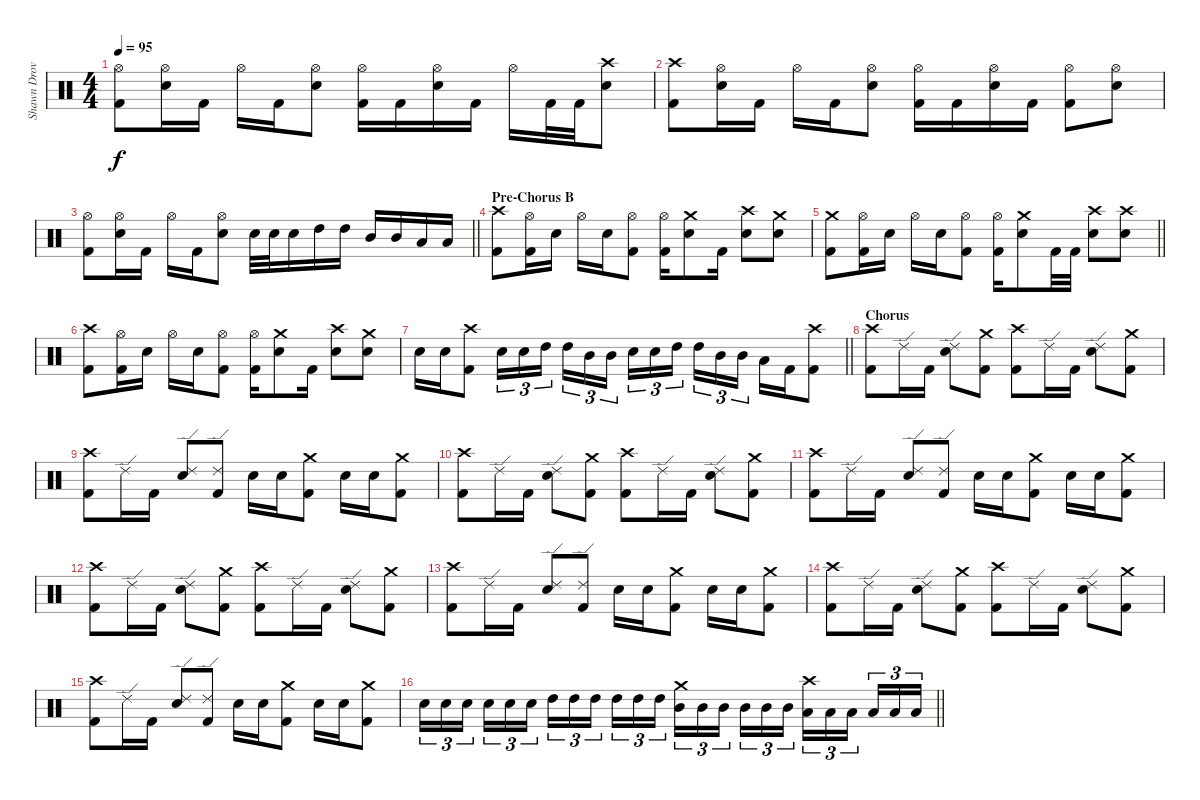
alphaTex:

\track ("Shawn Drover" "Shawn Drov") {instrument percussion}
\staff {score}
\articulation defaults
\ts (4 4)
\tempo 95
\clef neutral
\ks c
("Hi-Hat (open)" "Kick (hit) 2").8{dy f} ("Hi-Hat (open)" "Electric Snare (hit)").16 "Kick (hit) 2".16 "Hi-Hat (open)".16 "Kick (hit) 2".16 ("Hi-Hat (open)" "Electric Snare (hit)").8 ("Hi-Hat (open)" "Kick (hit) 2").16 "Kick (hit) 2".16 ("Hi-Hat (open)" "Electric Snare (hit)").16 "Kick (hit) 2".16 "Hi-Hat (open)".16 "Kick (hit) 2".32 "Kick (hit) 2".32 ("Crash high (hit)" "Electric Snare (hit)").8 |
("Crash high (hit)" "Kick (hit) 2").8 ("Hi-Hat (open)" "Electric Snare (hit)").16 "Kick (hit) 2".16 "Hi-Hat (open)".16 "Kick (hit) 2".16 ("Hi-Hat (open)" "Electric Snare (hit)").8 ("Hi-Hat (open)" "Kick (hit) 2").16 "Kick (hit) 2".16 ("Hi-Hat (open)" "Electric Snare (hit)").16 "Kick (hit) 2".16 ("Hi-Hat (open)" "Kick (hit) 2").8 ("Hi-Hat (open)" "Electric Snare (hit)").8 |
\barLineRight lightlight
("Hi-Hat (open)" "Kick (hit) 2").8 ("Hi-Hat (open)" "Electric Snare (hit)").16 "Kick (hit) 2".16 "Hi-Hat (open)".16 "Kick (hit) 2".16 ("Hi-Hat (open)" "Electric Snare (hit)").8 "Electric Snare (hit)".32 "Electric Snare (hit)".32 "Electric Snare (hit)".16 "High Tom (hit)".16 "High Tom (hit)".16 "Mid Tom (hit)".16 "Mid Tom (hit)".16 "Low Tom (hit)".16 "Low Tom (hit)".16 |
\section ("" "Pre-Chorus B")
("Crash high (hit)" "Kick (hit) 2").8 ("Hi-Hat (open)" "Kick (hit) 2").16 "Electric Snare (hit)".16 "Hi-Hat (open)".16 "Electric Snare (hit)".16 ("Hi-Hat (open)" "Kick (hit) 2").8 ("Hi-Hat (open)" "Kick (hit) 2").16 ("Crash medium (hit)" "Electric Snare (hit)").8 "Kick (hit) 2".16 ("Crash high (hit)" "Electric Snare (hit)").8 ("Crash medium (hit)" "Electric Snare (hit)").8 |
\barLineRight lightlight
("Crash medium (hit)" "Kick (hit) 2").8 ("Hi-Hat (open)" "Kick (hit) 2").16 "Electric Snare (hit)".16 "Hi-Hat (open)".16 "Electric Snare (hit)".16 ("Hi-Hat (open)" "Kick (hit) 2").8 ("Hi-Hat (open)" "Kick (hit) 2").16 ("Crash medium (hit)" "Electric Snare (hit)").8 "Kick (hit) 2".32 "Kick (hit) 2".32 ("Crash high (hit)" "Electric Snare (hit)").8 ("Crash high (hit)" "Electric Snare (hit)").8 |
("Crash high (hit)" "Kick (hit) 2").8 ("Hi-Hat (open)" "Kick (hit) 2").16 "Electric Snare (hit)".16 "Hi-Hat (open)".16 "Electric Snare (hit)".16 ("Hi-Hat (open)" "Kick (hit) 2").8 ("Hi-Hat (open)" "Kick (hit) 2").16 ("Crash medium (hit)" "Electric Snare (hit)").8 "Kick (hit) 2".16 ("Crash high (hit)" "Electric Snare (hit)").8 ("Crash medium (hit)" "Electric Snare (hit)").8 |
\barLineRight lightlight "Electric Snare (hit)".16 "Electric Snare (hit)".16
("Crash high (hit)" "Kick (hit) 2").8 "Electric Snare (hit)".16{tu (3 2)} "Electric Snare (hit)".16{tu (3 2)} "High Tom (hit)".16{tu (3 2) beam splitsecondary} "High Tom (hit)".16{tu (3 2)} "Mid Tom (hit)".16{tu (3 2)} "Mid Tom (hit)".16{tu (3 2)} "Electric Snare (hit)".16{tu (3 2)} "Electric Snare (hit)".16{tu (3 2)} "High Tom (hit)".16{tu (3 2) beam splitsecondary} "High Tom (hit)".16{tu (3 2)} "Mid Tom (hit)".16{tu (3 2)} "Mid Tom (hit)".16{tu (3 2)} "Low Tom (hit)".16 "Kick (hit) 2".16 ("Crash high (hit)" "Kick (hit) 2").8 |
\section ("" "Chorus")
("Crash high (hit)" "Kick (hit) 2").8 "Ride (edge) 2".16 "Kick (hit) 2".16 ("Ride (edge) 2" "Electric Snare (hit)").8 ("Crash medium (hit)" "Kick (hit) 2").8 ("Crash high (hit)" "Kick (hit) 2").8 "Ride (edge) 2".16 "Kick (hit) 2".16 ("Ride (edge) 2" "Electric Snare (hit)").8 ("Crash medium (hit)" "Kick (hit) 2").8 |
("Crash high (hit)" "Kick (hit) 2").8 "Ride (edge) 2".16 "Kick (hit) 2".16 ("Ride (edge) 2" "Electric Snare (hit)").8 ("Ride (edge) 2" "Kick (hit) 2").8 "Electric Snare (hit)".16 "Electric Snare (hit)".16 ("Crash medium (hit)" "Kick (hit) 2").8 "Electric Snare (hit)".16 "Electric Snare (hit)".16 ("Crash medium (hit)" "Kick (hit) 2").8 |
("Crash high (hit)" "Kick (hit) 2").8 "Ride (edge) 2".16 "Kick (hit) 2".16 ("Ride (edge) 2" "Electric Snare (hit)").8 ("Crash medium (hit)" "Kick (hit) 2").8 ("Crash high (hit)" "Kick (hit) 2").8 "Ride (edge) 2".16 "Kick (hit) 2".16 ("Ride (edge) 2" "Electric Snare (hit)").8 ("Crash medium (hit)" "Kick (hit) 2").8 |
("Crash high (hit)" "Kick (hit) 2").8 "Ride (edge) 2".16 "Kick (hit) 2".16 ("Ride (edge) 2" "Electric Snare (hit)").8 ("Ride (edge) 2" "Kick (hit) 2").8 "Electric Snare (hit)".16 "Electric Snare (hit)".16 ("Crash medium (hit)" "Kick (hit) 2").8 "Electric Snare (hit)".16 "Electric Snare (hit)".16 ("Crash medium (hit)" "Kick (hit) 2").8 |
("Crash high (hit)" "Kick (hit) 2").8 "Ride (edge) 2".16 "Kick (hit) 2".16 ("Ride (edge) 2" "Electric Snare (hit)").8 ("Crash medium (hit)" "Kick (hit) 2").8 ("Crash high (hit)" "Kick (hit) 2").8 "Ride (edge) 2".16 "Kick (hit) 2".16 ("Ride (edge) 2" "Electric Snare (hit)").8 ("Crash medium (hit)" "Kick (hit) 2").8 |
("Crash high (hit)" "Kick (hit) 2").8 "Ride (edge) 2".16 "Kick (hit) 2".16 ("Ride (edge) 2" "Electric Snare (hit)").8 ("Ride (edge) 2" "Kick (hit) 2").8 "Electric Snare (hit)".16 "Electric Snare (hit)".16 ("Crash medium (hit)" "Kick (hit) 2").8 "Electric Snare (hit)".16 "Electric Snare (hit)".16 ("Crash medium (hit)" "Kick (hit) 2").8 |
("Crash high (hit)" "Kick (hit) 2").8 "Ride (edge) 2".16 "Kick (hit) 2".16 ("Ride (edge) 2" "Electric Snare (hit)").8 ("Crash medium (hit)" "Kick (hit) 2").8 ("Crash high (hit)" "Kick (hit) 2").8 "Ride (edge) 2".16 "Kick (hit) 2".16 ("Ride (edge) 2" "Electric Snare (hit)").8 ("Crash medium (hit)" "Kick (hit) 2").8 |
("Crash high (hit)" "Kick (hit) 2").8 "Ride (edge) 2".16 "Kick (hit) 2".16 ("Ride (edge) 2" "Electric Snare (hit)").8 ("Ride (edge) 2" "Kick (hit) 2").8 "Electric Snare (hit)".16 "Electric Snare (hit)".16 ("Crash medium (hit)" "Kick (hit) 2").8 "Electric Snare (hit)".16 "Electric Snare (hit)".16 ("Crash medium (hit)" "Kick (hit) 2").8 |
\barLineRight lightlight "Electric Snare (hit)".16{tu (3 2)} "Electric Snare (hit)".16{tu (3 2)} "Electric Snare (hit)".16{tu (3 2) beam splitsecondary} "Electric Snare (hit)".16{tu (3 2)} "Electric Snare (hit)".16{tu (3 2)} "Electric Snare (hit)".16{tu (3 2)} "High Tom (hit)".16{tu (3 2)} "High Tom (hit)".16{tu (3 2)} "High Tom (hit)".16{tu (3 2) beam splitsecondary} "High Tom (hit)".16{tu (3 2)} "High Tom (hit)".16{tu (3 2)} "High Tom (hit)".16{tu (3 2)}
("Crash medium (hit)" "Mid Tom (hit)").16{tu (3 2)} "Mid Tom (hit)".16{tu (3 2)} "Mid Tom (hit)".16{tu (3 2) beam splitsecondary} "Mid Tom (hit)".16{tu (3 2)} "Mid Tom (hit)".16{tu (3 2)} "Mid Tom (hit)".16{tu (3 2)} ("Crash high (hit)" "Low Tom (hit)").16{tu (3 2)} "Low Tom (hit)".16{tu (3 2)} "Low Tom (hit)".16{tu (3 2) beam splitsecondary} "Low Tom (hit)".16{tu (3 2)} "Low Tom (hit)".16{tu (3 2)} "Low Tom (hit)".16{tu (3 2)}
